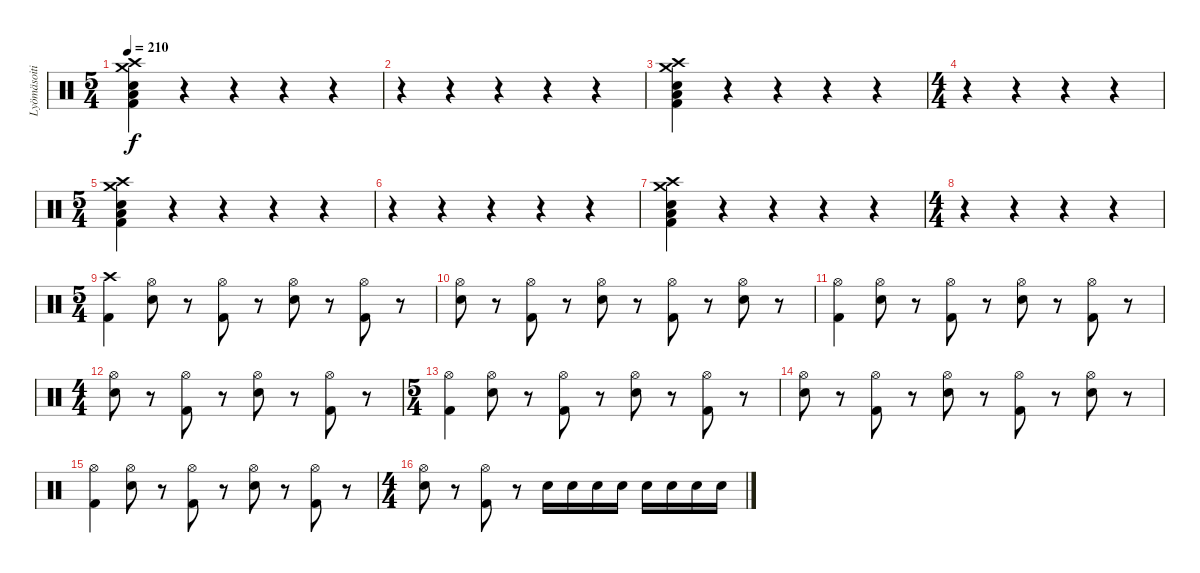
\track ("Lyömäsoitin" "Lyömäsoiti") {instrument percussion}
\staff {score}
\articulation defaults
\ts (5 4)
\tempo 210
\clef neutral
\ks c
("Crash medium (hit)" "Crash high (hit)" "Electric Snare (hit)" "Low Floor Tom (hit)" "Kick (hit) 2").4{dy f} r.4 r.4 r.4 r.4 |
r.4 r.4 r.4 r.4 r.4 |
("Crash medium (hit)" "Crash high (hit)" "Electric Snare (hit)" "Low Floor Tom (hit)" "Kick (hit) 2").4 r.4 r.4 r.4 r.4 |
\ts (4 4)
r.4 r.4 r.4 r.4 |
\ts (5 4)
("Crash medium (hit)" "Crash high (hit)" "Electric Snare (hit)" "Low Floor Tom (hit)" "Kick (hit) 2").4 r.4 r.4 r.4 r.4 |
r.4 r.4 r.4 r.4 r.4 |
("Crash medium (hit)" "Crash high (hit)" "Electric Snare (hit)" "Low Floor Tom (hit)" "Kick (hit) 2").4 r.4 r.4 r.4 r.4 |
\ts (4 4)
r.4 r.4 r.4 r.4 |
\ts (5 4)
("Crash high (hit)" "Kick (hit) 2").4 ("Hi-Hat (open)" "Electric Snare (hit)").8 r.8 ("Hi-Hat (open)" "Kick (hit) 2").8 r.8 ("Hi-Hat (open)" "Electric Snare (hit)").8 r.8 ("Hi-Hat (open)" "Kick (hit) 2").8 r.8 |
("Hi-Hat (open)" "Electric Snare (hit)").8 r.8 ("Hi-Hat (open)" "Kick (hit) 2").8 r.8 ("Hi-Hat (open)" "Electric Snare (hit)").8 r.8 ("Hi-Hat (open)" "Kick (hit) 2").8 r.8 ("Hi-Hat (open)" "Electric Snare (hit)").8 r.8 |
("Hi-Hat (open)" "Kick (hit) 2").4 ("Hi-Hat (open)" "Electric Snare (hit)").8 r.8 ("Hi-Hat (open)" "Kick (hit) 2").8 r.8 ("Hi-Hat (open)" "Electric Snare (hit)").8 r.8 ("Hi-Hat (open)" "Kick (hit) 2").8 r.8 |
\ts (4 4)
("Hi-Hat (open)" "Electric Snare (hit)").8 r.8 ("Hi-Hat (open)" "Kick (hit) 2").8 r.8 ("Hi-Hat (open)" "Electric Snare (hit)").8 r.8 ("Hi-Hat (open)" "Kick (hit) 2").8 r.8 |
\ts (5 4)
("Hi-Hat (open)" "Kick (hit) 2").4 ("Hi-Hat (open)" "Electric Snare (hit)").8 r.8 ("Hi-Hat (open)" "Kick (hit) 2").8 r.8 ("Hi-Hat (open)" "Electric Snare (hit)").8 r.8 ("Hi-Hat (open)" "Kick (hit) 2").8 r.8 |
("Hi-Hat (open)" "Electric Snare (hit)").8 r.8 ("Hi-Hat (open)" "Kick (hit) 2").8 r.8 ("Hi-Hat (open)" "Electric Snare (hit)").8 r.8 ("Hi-Hat (open)" "Kick (hit) 2").8 r.8 ("Hi-Hat (open)" "Electric Snare (hit)").8 r.8 |
("Hi-Hat (open)" "Kick (hit) 2").4 ("Hi-Hat (open)" "Electric Snare (hit)").8 r.8 ("Hi-Hat (open)" "Kick (hit) 2").8 r.8 ("Hi-Hat (open)" "Electric Snare (hit)").8 r.8 ("Hi-Hat (open)" "Kick (hit) 2").8 r.8 |
\ts (4 4)
("Hi-Hat (open)" "Electric Snare (hit)").8 r.8 ("Hi-Hat (open)" "Kick (hit) 2").8 r.8 "Electric Snare (hit)".16 "Electric Snare (hit)".16 "Electric Snare (hit)".16 "Electric Snare (hit)".16 "Electric Snare (hit)".16 "Electric Snare (hit)".16 "Electric Snare (hit)".16 "Electric Snare (hit)".16
